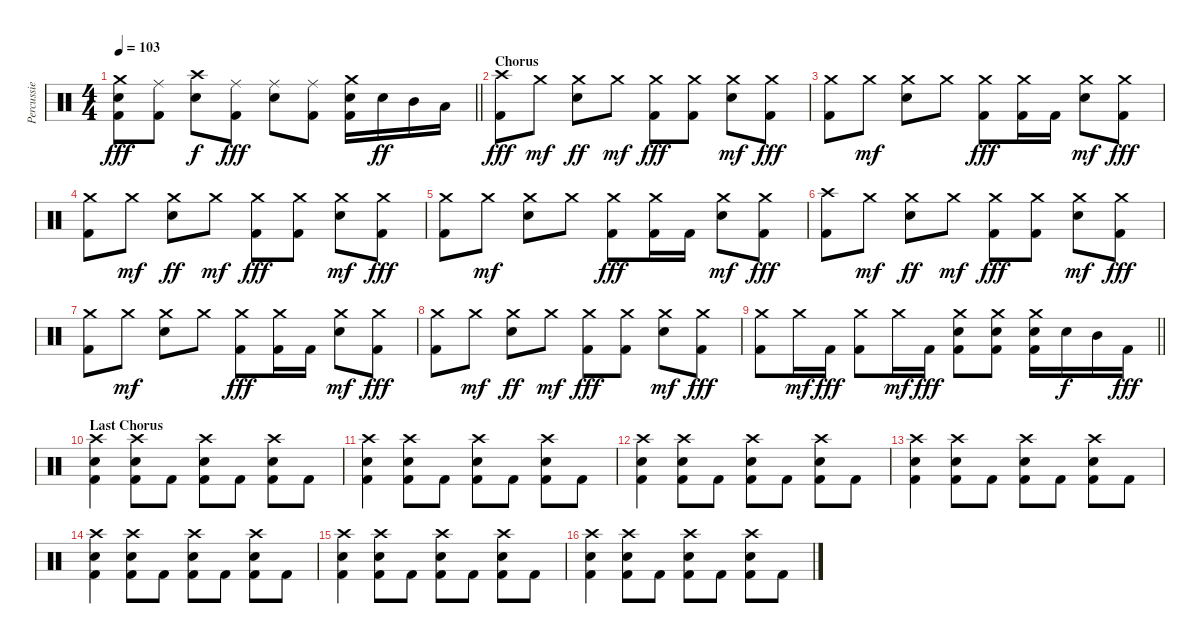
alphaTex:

\track ("Percussie" "Percussie") {instrument percussion}
\staff {score}
\articulation defaults
\ts (4 4)
\tempo 103
\clef neutral
\barLineRight lightlight
\ks c
("Crash medium (hit)" "Electric Snare (hit)" "Kick (hit) 2").8{dy fff} ("Ride (middle)" "Kick (hit) 2").8 ("Crash high (hit)" "Electric Snare (hit)").8{dy f} ("Ride (middle)" "Kick (hit) 2").8{dy fff} ("Ride (middle)" "Electric Snare (hit)").8 ("Ride (middle)" "Kick (hit) 2").8 ("Crash medium (hit)" "Electric Snare (hit)" "Kick (hit) 2").16 "Electric Snare (hit)".16{dy ff} "Mid Tom (hit)".16 "Low Tom (hit)".16 |
\section ("" "Chorus")
("Crash high (hit)" "Kick (hit) 2").8{dy fff} "Crash medium (hit)".8{dy mf} ("Crash medium (hit)" "Electric Snare (hit)").8{dy ff} "Crash medium (hit)".8{dy mf} ("Crash medium (hit)" "Kick (hit) 2").8{dy fff} ("Crash medium (hit)" "Kick (hit) 2").8 ("Crash medium (hit)" "Electric Snare (hit)").8{dy mf} ("Crash medium (hit)" "Kick (hit) 2").8{dy fff} |
("Crash medium (hit)" "Kick (hit) 2").8 "Crash medium (hit)".8{dy mf} ("Crash medium (hit)" "Electric Snare (hit)").8 "Crash medium (hit)".8 ("Crash medium (hit)" "Kick (hit) 2").8{dy fff} ("Crash medium (hit)" "Kick (hit) 2").16 "Kick (hit) 2".16 ("Crash medium (hit)" "Electric Snare (hit)").8{dy mf} ("Crash medium (hit)" "Kick (hit) 2").8{dy fff} |
("Crash medium (hit)" "Kick (hit) 2").8 "Crash medium (hit)".8{dy mf} ("Crash medium (hit)" "Electric Snare (hit)").8{dy ff} "Crash medium (hit)".8{dy mf} ("Crash medium (hit)" "Kick (hit) 2").8{dy fff} ("Crash medium (hit)" "Kick (hit) 2").8 ("Crash medium (hit)" "Electric Snare (hit)").8{dy mf} ("Crash medium (hit)" "Kick (hit) 2").8{dy fff} |
("Crash medium (hit)" "Kick (hit) 2").8 "Crash medium (hit)".8{dy mf} ("Crash medium (hit)" "Electric Snare (hit)").8 "Crash medium (hit)".8 ("Crash medium (hit)" "Kick (hit) 2").8{dy fff} ("Crash medium (hit)" "Kick (hit) 2").16 "Kick (hit) 2".16 ("Crash medium (hit)" "Electric Snare (hit)").8{dy mf} ("Crash medium (hit)" "Kick (hit) 2").8{dy fff} |
("Crash high (hit)" "Kick (hit) 2").8 "Crash medium (hit)".8{dy mf} ("Crash medium (hit)" "Electric Snare (hit)").8{dy ff} "Crash medium (hit)".8{dy mf} ("Crash medium (hit)" "Kick (hit) 2").8{dy fff} ("Crash medium (hit)" "Kick (hit) 2").8 ("Crash medium (hit)" "Electric Snare (hit)").8{dy mf} ("Crash medium (hit)" "Kick (hit) 2").8{dy fff} |
("Crash medium (hit)" "Kick (hit) 2").8 "Crash medium (hit)".8{dy mf} ("Crash medium (hit)" "Electric Snare (hit)").8 "Crash medium (hit)".8 ("Crash medium (hit)" "Kick (hit) 2").8{dy fff} ("Crash medium (hit)" "Kick (hit) 2").16 "Kick (hit) 2".16 ("Crash medium (hit)" "Electric Snare (hit)").8{dy mf} ("Crash medium (hit)" "Kick (hit) 2").8{dy fff} |
("Crash medium (hit)" "Kick (hit) 2").8 "Crash medium (hit)".8{dy mf} ("Crash medium (hit)" "Electric Snare (hit)").8{dy ff} "Crash medium (hit)".8{dy mf} ("Crash medium (hit)" "Kick (hit) 2").8{dy fff} ("Crash medium (hit)" "Kick (hit) 2").8 ("Crash medium (hit)" "Electric Snare (hit)").8{dy mf} ("Crash medium (hit)" "Kick (hit) 2").8{dy fff} |
\barLineRight lightlight
("Crash medium (hit)" "Kick (hit) 2").8 "Crash medium (hit)".16{dy mf} "Kick (hit) 2".16{dy fff} ("Crash medium (hit)" "Kick (hit) 2").8 "Crash medium (hit)".16{dy mf} "Kick (hit) 2".16{dy fff} ("Crash medium (hit)" "Electric Snare (hit)" "Kick (hit) 2").8 ("Crash medium (hit)" "Electric Snare (hit)" "Kick (hit) 2").8 ("Crash medium (hit)" "Electric Snare (hit)" "Kick (hit) 2").16 "Electric Snare (hit)".16{dy f} "Mid Tom (hit)".16 "Kick (hit) 2".16{dy fff} |
\section ("" "Last Chorus")
("Crash high (hit)" "Electric Snare (hit)" "Kick (hit) 2").4 ("Crash high (hit)" "Electric Snare (hit)" "Kick (hit) 2").8 "Kick (hit) 2".8 ("Crash high (hit)" "Electric Snare (hit)" "Kick (hit) 2").8 "Kick (hit) 2".8 ("Crash high (hit)" "Electric Snare (hit)" "Kick (hit) 2").8 "Kick (hit) 2".8 |
("Crash high (hit)" "Electric Snare (hit)" "Kick (hit) 2").4 ("Crash high (hit)" "Electric Snare (hit)" "Kick (hit) 2").8 "Kick (hit) 2".8 ("Crash high (hit)" "Electric Snare (hit)" "Kick (hit) 2").8 "Kick (hit) 2".8 ("Crash high (hit)" "Electric Snare (hit)" "Kick (hit) 2").8 "Kick (hit) 2".8 |
("Crash high (hit)" "Electric Snare (hit)" "Kick (hit) 2").4 ("Crash high (hit)" "Electric Snare (hit)" "Kick (hit) 2").8 "Kick (hit) 2".8 ("Crash high (hit)" "Electric Snare (hit)" "Kick (hit) 2").8 "Kick (hit) 2".8 ("Crash high (hit)" "Electric Snare (hit)" "Kick (hit) 2").8 "Kick (hit) 2".8 |
("Crash high (hit)" "Electric Snare (hit)" "Kick (hit) 2").4 ("Crash high (hit)" "Electric Snare (hit)" "Kick (hit) 2").8 "Kick (hit) 2".8 ("Crash high (hit)" "Electric Snare (hit)" "Kick (hit) 2").8 "Kick (hit) 2".8 ("Crash high (hit)" "Electric Snare (hit)" "Kick (hit) 2").8 "Kick (hit) 2".8 |
("Crash high (hit)" "Electric Snare (hit)" "Kick (hit) 2").4 ("Crash high (hit)" "Electric Snare (hit)" "Kick (hit) 2").8 "Kick (hit) 2".8 ("Crash high (hit)" "Electric Snare (hit)" "Kick (hit) 2").8 "Kick (hit) 2".8 ("Crash high (hit)" "Electric Snare (hit)" "Kick (hit) 2").8 "Kick (hit) 2".8 |
("Crash high (hit)" "Electric Snare (hit)" "Kick (hit) 2").4 ("Crash high (hit)" "Electric Snare (hit)" "Kick (hit) 2").8 "Kick (hit) 2".8 ("Crash high (hit)" "Electric Snare (hit)" "Kick (hit) 2").8 "Kick (hit) 2".8 ("Crash high (hit)" "Electric Snare (hit)" "Kick (hit) 2").8 "Kick (hit) 2".8 |
("Crash high (hit)" "Electric Snare (hit)" "Kick (hit) 2").4 ("Crash high (hit)" "Electric Snare (hit)" "Kick (hit) 2").8 "Kick (hit) 2".8 ("Crash high (hit)" "Electric Snare (hit)" "Kick (hit) 2").8 "Kick (hit) 2".8 ("Crash high (hit)" "Electric Snare (hit)" "Kick (hit) 2").8 "Kick (hit) 2".8
